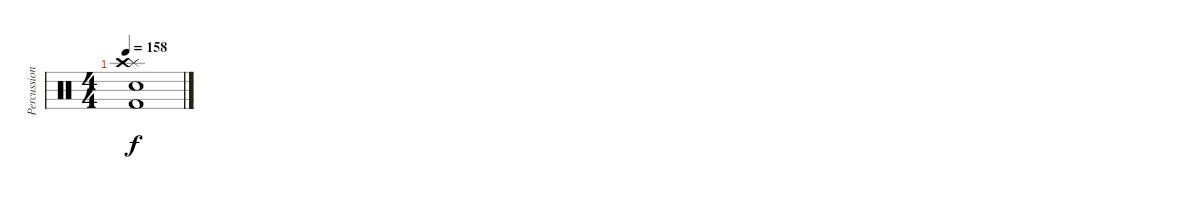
\track ("Percussion" "Percussion") {instrument percussion}
\staff {score}
\articulation defaults
\ts (4 4)
\tempo 158
\clef neutral
\ks c
("Splash (hit)" "Snare (hit) 2" "Crash high (hit)" "Kick (hit) 2").1{dy f}
